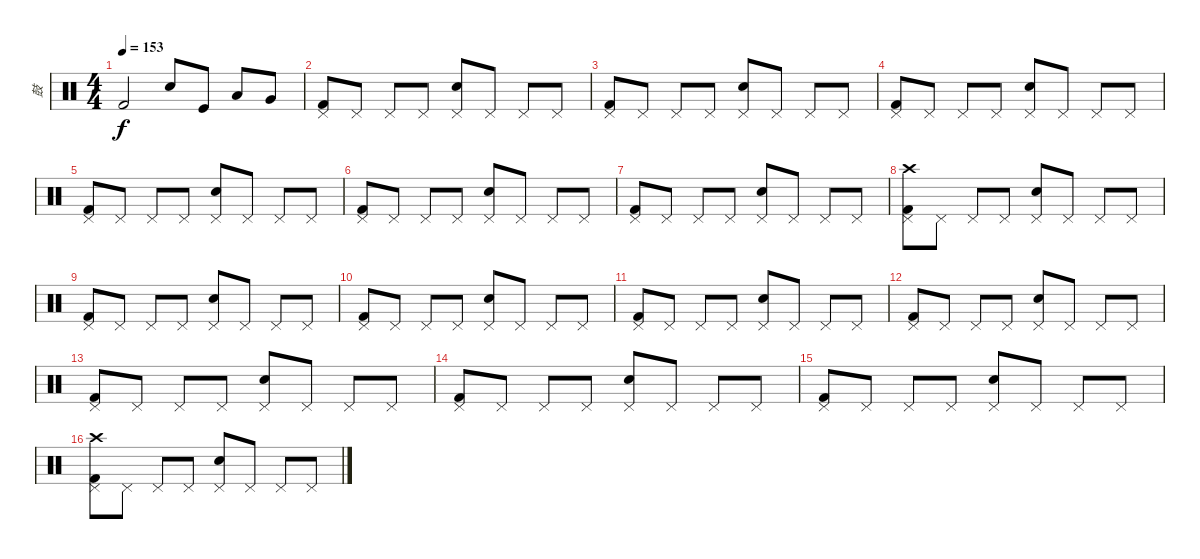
\track ("鼓" "鼓") {instrument percussion}
\staff {score}
\articulation defaults
\ts (4 4)
\tempo 153
\clef neutral
\ks c "Kick (hit) 2".2{dy f} "Snare (hit) 2".8 "Kick (hit)".8 "Low Tom (hit)".8 "Very Low Tom (hit)".8
|
("Pedal Hi-Hat (hit)" "Kick (hit) 2").8 "Pedal Hi-Hat (hit)".8 "Pedal Hi-Hat (hit)".8 "Pedal Hi-Hat (hit)".8 ("Pedal Hi-Hat (hit)" "Electric Snare (hit)").8 "Pedal Hi-Hat (hit)".8 "Pedal Hi-Hat (hit)".8 "Pedal Hi-Hat (hit)".8 |
("Pedal Hi-Hat (hit)" "Kick (hit) 2").8 "Pedal Hi-Hat (hit)".8 "Pedal Hi-Hat (hit)".8 "Pedal Hi-Hat (hit)".8 ("Pedal Hi-Hat (hit)" "Electric Snare (hit)").8 "Pedal Hi-Hat (hit)".8 "Pedal Hi-Hat (hit)".8 "Pedal Hi-Hat (hit)".8 |
("Pedal Hi-Hat (hit)" "Kick (hit) 2").8 "Pedal Hi-Hat (hit)".8 "Pedal Hi-Hat (hit)".8 "Pedal Hi-Hat (hit)".8 ("Pedal Hi-Hat (hit)" "Electric Snare (hit)").8 "Pedal Hi-Hat (hit)".8 "Pedal Hi-Hat (hit)".8 "Pedal Hi-Hat (hit)".8 |
("Pedal Hi-Hat (hit)" "Kick (hit) 2").8 "Pedal Hi-Hat (hit)".8 "Pedal Hi-Hat (hit)".8 "Pedal Hi-Hat (hit)".8 ("Pedal Hi-Hat (hit)" "Electric Snare (hit)").8 "Pedal Hi-Hat (hit)".8 "Pedal Hi-Hat (hit)".8 "Pedal Hi-Hat (hit)".8 |
("Pedal Hi-Hat (hit)" "Kick (hit) 2").8 "Pedal Hi-Hat (hit)".8 "Pedal Hi-Hat (hit)".8 "Pedal Hi-Hat (hit)".8 ("Pedal Hi-Hat (hit)" "Electric Snare (hit)").8 "Pedal Hi-Hat (hit)".8 "Pedal Hi-Hat (hit)".8 "Pedal Hi-Hat (hit)".8 |
("Pedal Hi-Hat (hit)" "Kick (hit) 2").8 "Pedal Hi-Hat (hit)".8 "Pedal Hi-Hat (hit)".8 "Pedal Hi-Hat (hit)".8 ("Pedal Hi-Hat (hit)" "Electric Snare (hit)").8 "Pedal Hi-Hat (hit)".8 "Pedal Hi-Hat (hit)".8 "Pedal Hi-Hat (hit)".8 |
("Pedal Hi-Hat (hit)" "Crash high (hit)" "Kick (hit) 2").8 "Pedal Hi-Hat (hit)".8 "Pedal Hi-Hat (hit)".8 "Pedal Hi-Hat (hit)".8 ("Pedal Hi-Hat (hit)" "Electric Snare (hit)").8 "Pedal Hi-Hat (hit)".8 "Pedal Hi-Hat (hit)".8 "Pedal Hi-Hat (hit)".8 |
("Pedal Hi-Hat (hit)" "Kick (hit) 2").8 "Pedal Hi-Hat (hit)".8 "Pedal Hi-Hat (hit)".8 "Pedal Hi-Hat (hit)".8 ("Pedal Hi-Hat (hit)" "Electric Snare (hit)").8 "Pedal Hi-Hat (hit)".8 "Pedal Hi-Hat (hit)".8 "Pedal Hi-Hat (hit)".8 |
("Pedal Hi-Hat (hit)" "Kick (hit) 2").8 "Pedal Hi-Hat (hit)".8 "Pedal Hi-Hat (hit)".8 "Pedal Hi-Hat (hit)".8 ("Pedal Hi-Hat (hit)" "Electric Snare (hit)").8 "Pedal Hi-Hat (hit)".8 "Pedal Hi-Hat (hit)".8 "Pedal Hi-Hat (hit)".8 |
("Pedal Hi-Hat (hit)" "Kick (hit) 2").8 "Pedal Hi-Hat (hit)".8 "Pedal Hi-Hat (hit)".8 "Pedal Hi-Hat (hit)".8 ("Pedal Hi-Hat (hit)" "Electric Snare (hit)").8 "Pedal Hi-Hat (hit)".8 "Pedal Hi-Hat (hit)".8 "Pedal Hi-Hat (hit)".8 |
("Pedal Hi-Hat (hit)" "Kick (hit) 2").8 "Pedal Hi-Hat (hit)".8 "Pedal Hi-Hat (hit)".8 "Pedal Hi-Hat (hit)".8 ("Pedal Hi-Hat (hit)" "Electric Snare (hit)").8 "Pedal Hi-Hat (hit)".8 "Pedal Hi-Hat (hit)".8 "Pedal Hi-Hat (hit)".8 |
("Pedal Hi-Hat (hit)" "Kick (hit) 2").8 "Pedal Hi-Hat (hit)".8 "Pedal Hi-Hat (hit)".8 "Pedal Hi-Hat (hit)".8 ("Pedal Hi-Hat (hit)" "Electric Snare (hit)").8 "Pedal Hi-Hat (hit)".8 "Pedal Hi-Hat (hit)".8 "Pedal Hi-Hat (hit)".8 |
("Pedal Hi-Hat (hit)" "Kick (hit) 2").8 "Pedal Hi-Hat (hit)".8 "Pedal Hi-Hat (hit)".8 "Pedal Hi-Hat (hit)".8 ("Pedal Hi-Hat (hit)" "Electric Snare (hit)").8 "Pedal Hi-Hat (hit)".8 "Pedal Hi-Hat (hit)".8 "Pedal Hi-Hat (hit)".8 |
("Pedal Hi-Hat (hit)" "Kick (hit) 2").8 "Pedal Hi-Hat (hit)".8 "Pedal Hi-Hat (hit)".8 "Pedal Hi-Hat (hit)".8 ("Pedal Hi-Hat (hit)" "Electric Snare (hit)").8 "Pedal Hi-Hat (hit)".8 "Pedal Hi-Hat (hit)".8 "Pedal Hi-Hat (hit)".8 |
("Pedal Hi-Hat (hit)" "Crash high (hit)" "Kick (hit) 2").8 "Pedal Hi-Hat (hit)".8 "Pedal Hi-Hat (hit)".8 "Pedal Hi-Hat (hit)".8 ("Pedal Hi-Hat (hit)" "Electric Snare (hit)").8 "Pedal Hi-Hat (hit)".8 "Pedal Hi-Hat (hit)".8 "Pedal Hi-Hat (hit)".8
